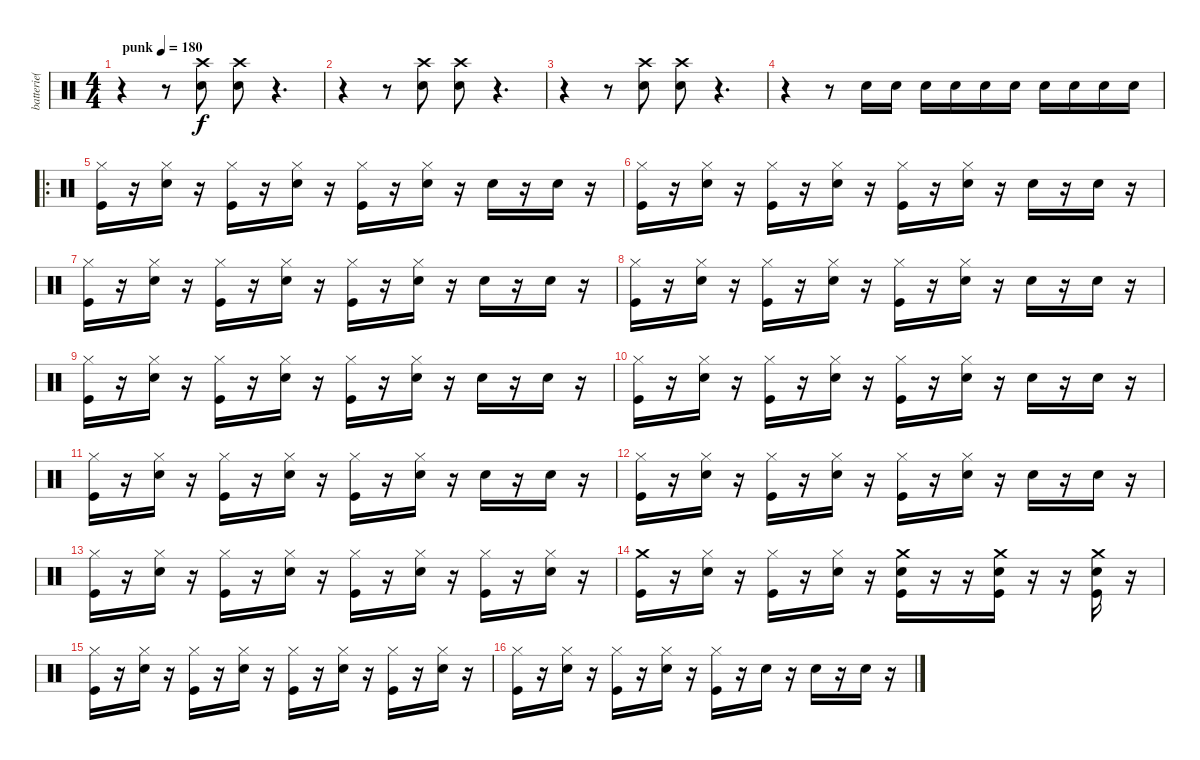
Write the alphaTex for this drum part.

\track ("batterie( Shawn )" "batterie( ") {instrument percussion}
\staff {score}
\articulation defaults
\ts (4 4)
\tempo (180 "punk")
\clef neutral
\ks c
r.4{dy f} r.8 ("Crash high (hit)" "Snare (hit) 2").8 ("Crash high (hit)" "Snare (hit) 2").8 r.4{d} |
r.4 r.8 ("Crash high (hit)" "Snare (hit) 2").8 ("Crash high (hit)" "Snare (hit) 2").8 r.4{d} |
r.4 r.8 ("Crash high (hit)" "Snare (hit) 2").8 ("Crash high (hit)" "Snare (hit) 2").8 r.4{d} |
r.4 r.8 "Snare (hit) 2".16 "Snare (hit) 2".16 "Snare (hit) 2".16 "Snare (hit) 2".16 "Snare (hit) 2".16 "Snare (hit) 2".16 "Snare (hit) 2".16 "Snare (hit) 2".16 "Snare (hit) 2".16 "Snare (hit) 2".16 |
\ro
("Hi-Hat (closed)" "Kick (hit)").16 r.16 ("Hi-Hat (closed)" "Snare (hit) 2").16 r.16 ("Hi-Hat (closed)" "Kick (hit)").16 r.16 ("Hi-Hat (closed)" "Snare (hit) 2").16 r.16 ("Hi-Hat (closed)" "Kick (hit)").16 r.16 ("Hi-Hat (closed)" "Snare (hit) 2").16 r.16 "Snare (hit) 2".16 r.16 "Snare (hit) 2".16 r.16 |
("Hi-Hat (closed)" "Kick (hit)").16 r.16 ("Hi-Hat (closed)" "Snare (hit) 2").16 r.16 ("Hi-Hat (closed)" "Kick (hit)").16 r.16 ("Hi-Hat (closed)" "Snare (hit) 2").16 r.16 ("Hi-Hat (closed)" "Kick (hit)").16 r.16 ("Hi-Hat (closed)" "Snare (hit) 2").16 r.16 "Snare (hit) 2".16 r.16 "Snare (hit) 2".16 r.16 |
("Hi-Hat (closed)" "Kick (hit)").16 r.16 ("Hi-Hat (closed)" "Snare (hit) 2").16 r.16 ("Hi-Hat (closed)" "Kick (hit)").16 r.16 ("Hi-Hat (closed)" "Snare (hit) 2").16 r.16 ("Hi-Hat (closed)" "Kick (hit)").16 r.16 ("Hi-Hat (closed)" "Snare (hit) 2").16 r.16 "Snare (hit) 2".16 r.16 "Snare (hit) 2".16 r.16 |
("Hi-Hat (closed)" "Kick (hit)").16 r.16 ("Hi-Hat (closed)" "Snare (hit) 2").16 r.16 ("Hi-Hat (closed)" "Kick (hit)").16 r.16 ("Hi-Hat (closed)" "Snare (hit) 2").16 r.16 ("Hi-Hat (closed)" "Kick (hit)").16 r.16 ("Hi-Hat (closed)" "Snare (hit) 2").16 r.16 "Snare (hit) 2".16 r.16 "Snare (hit) 2".16 r.16 |
("Hi-Hat (closed)" "Kick (hit)").16 r.16 ("Hi-Hat (closed)" "Snare (hit) 2").16 r.16 ("Hi-Hat (closed)" "Kick (hit)").16 r.16 ("Hi-Hat (closed)" "Snare (hit) 2").16 r.16 ("Hi-Hat (closed)" "Kick (hit)").16 r.16 ("Hi-Hat (closed)" "Snare (hit) 2").16 r.16 "Snare (hit) 2".16 r.16 "Snare (hit) 2".16 r.16 |
("Hi-Hat (closed)" "Kick (hit)").16 r.16 ("Hi-Hat (closed)" "Snare (hit) 2").16 r.16 ("Hi-Hat (closed)" "Kick (hit)").16 r.16 ("Hi-Hat (closed)" "Snare (hit) 2").16 r.16 ("Hi-Hat (closed)" "Kick (hit)").16 r.16 ("Hi-Hat (closed)" "Snare (hit) 2").16 r.16 "Snare (hit) 2".16 r.16 "Snare (hit) 2".16 r.16 |
("Hi-Hat (closed)" "Kick (hit)").16 r.16 ("Hi-Hat (closed)" "Snare (hit) 2").16 r.16 ("Hi-Hat (closed)" "Kick (hit)").16 r.16 ("Hi-Hat (closed)" "Snare (hit) 2").16 r.16 ("Hi-Hat (closed)" "Kick (hit)").16 r.16 ("Hi-Hat (closed)" "Snare (hit) 2").16 r.16 "Snare (hit) 2".16 r.16 "Snare (hit) 2".16 r.16 |
("Hi-Hat (closed)" "Kick (hit)").16 r.16 ("Hi-Hat (closed)" "Snare (hit) 2").16 r.16 ("Hi-Hat (closed)" "Kick (hit)").16 r.16 ("Hi-Hat (closed)" "Snare (hit) 2").16 r.16 ("Hi-Hat (closed)" "Kick (hit)").16 r.16 ("Hi-Hat (closed)" "Snare (hit) 2").16 r.16 "Snare (hit) 2".16 r.16 "Snare (hit) 2".16 r.16 |
("Hi-Hat (closed)" "Kick (hit)").16 r.16 ("Hi-Hat (closed)" "Snare (hit) 2").16 r.16 ("Hi-Hat (closed)" "Kick (hit)").16 r.16 ("Hi-Hat (closed)" "Snare (hit) 2").16 r.16 ("Hi-Hat (closed)" "Kick (hit)").16 r.16 ("Hi-Hat (closed)" "Snare (hit) 2").16 r.16 ("Hi-Hat (closed)" "Kick (hit)").16 r.16 ("Hi-Hat (closed)" "Snare (hit) 2").16 r.16 |
("Crash medium (hit)" "Kick (hit)").16 r.16 ("Hi-Hat (closed)" "Snare (hit) 2").16 r.16 ("Hi-Hat (closed)" "Kick (hit)").16 r.16 ("Hi-Hat (closed)" "Snare (hit) 2").16 r.16 ("Crash medium (hit)" "Snare (hit) 2" "Kick (hit)").16 r.16 r.16 ("Crash medium (hit)" "Snare (hit) 2" "Kick (hit)").16 r.16 r.16 ("Crash medium (hit)" "Snare (hit) 2" "Kick (hit)").16 r.16 |
("Hi-Hat (closed)" "Kick (hit)").16 r.16 ("Hi-Hat (closed)" "Snare (hit) 2").16 r.16 ("Hi-Hat (closed)" "Kick (hit)").16 r.16 ("Hi-Hat (closed)" "Snare (hit) 2").16 r.16 ("Hi-Hat (closed)" "Kick (hit)").16 r.16 ("Hi-Hat (closed)" "Snare (hit) 2").16 r.16 ("Hi-Hat (closed)" "Kick (hit)").16 r.16 ("Hi-Hat (closed)" "Snare (hit) 2").16 r.16 |
("Hi-Hat (closed)" "Kick (hit)").16 r.16 ("Hi-Hat (closed)" "Snare (hit) 2").16 r.16 ("Hi-Hat (closed)" "Kick (hit)").16 r.16 ("Hi-Hat (closed)" "Snare (hit) 2").16 r.16 ("Hi-Hat (closed)" "Kick (hit)").16 r.16 "Snare (hit) 2".16 r.16 "Snare (hit) 2".16 r.16 "Snare (hit) 2".16 r.16
